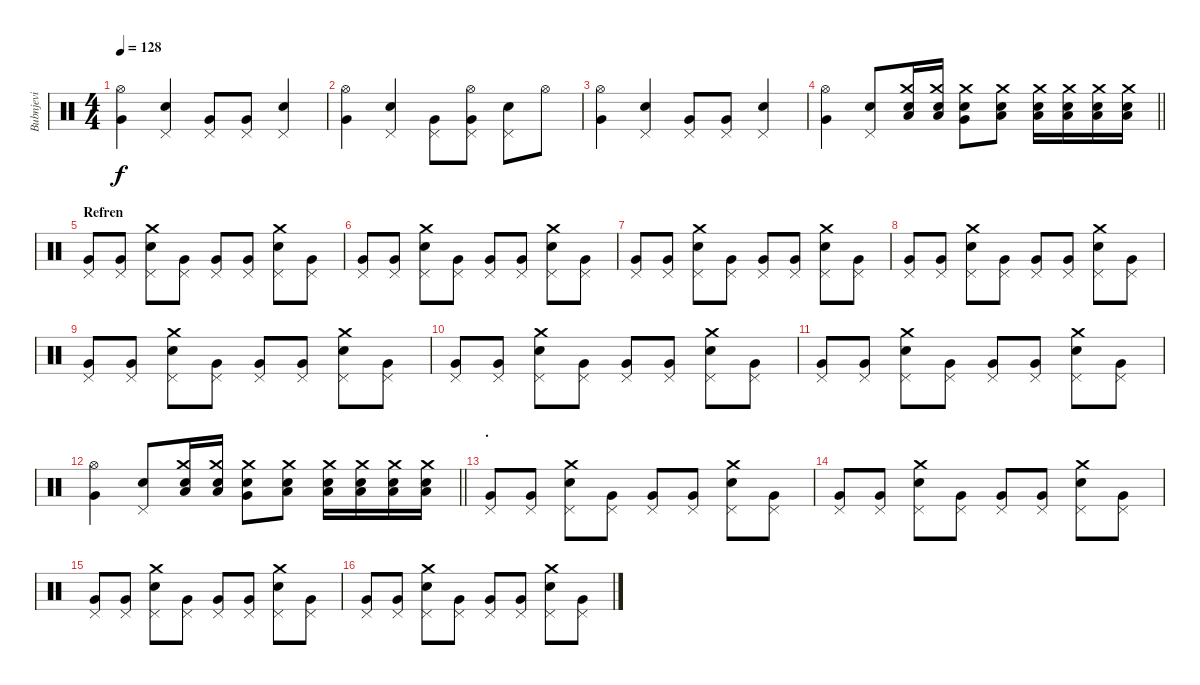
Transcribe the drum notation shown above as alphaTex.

\track ("Bubnjevi" "Bubnjevi") {instrument percussion}
\staff {score}
\articulation defaults
\ts (4 4)
\tempo 128
\clef neutral
\ks c
("Hi-Hat (open)" "Very Low Tom (hit)").4{dy f} ("Pedal Hi-Hat (hit)" "Electric Snare (hit)").4 ("Pedal Hi-Hat (hit)" "Very Low Tom (hit)").8 ("Pedal Hi-Hat (hit)" "Very Low Tom (hit)").8 ("Pedal Hi-Hat (hit)" "Electric Snare (hit)").4 |
("Hi-Hat (open)" "Very Low Tom (hit)").4 ("Pedal Hi-Hat (hit)" "Electric Snare (hit)").4 ("Pedal Hi-Hat (hit)" "Very Low Tom (hit)").8 ("Pedal Hi-Hat (hit)" "Hi-Hat (open)" "Very Low Tom (hit)").8 ("Pedal Hi-Hat (hit)" "Electric Snare (hit)").8 "Hi-Hat (open)".8 |
("Hi-Hat (open)" "Very Low Tom (hit)").4 ("Pedal Hi-Hat (hit)" "Electric Snare (hit)").4 ("Pedal Hi-Hat (hit)" "Very Low Tom (hit)").8 ("Pedal Hi-Hat (hit)" "Very Low Tom (hit)").8 ("Pedal Hi-Hat (hit)" "Electric Snare (hit)").4 |
\barLineRight lightlight
("Hi-Hat (open)" "Very Low Tom (hit)").4 ("Pedal Hi-Hat (hit)" "Electric Snare (hit)").8 ("Crash medium (hit)" "Electric Snare (hit)" "Low Tom (hit)").16 ("Crash medium (hit)" "Electric Snare (hit)" "Low Tom (hit)").16 ("Crash medium (hit)" "Electric Snare (hit)" "Very Low Tom (hit)").8 ("Crash medium (hit)" "Electric Snare (hit)" "Low Tom (hit)").8 ("Crash medium (hit)" "Electric Snare (hit)" "Low Tom (hit)").16 ("Crash medium (hit)" "Electric Snare (hit)" "Low Tom (hit)").16 ("Crash medium (hit)" "Electric Snare (hit)" "Low Tom (hit)").16 ("Crash medium (hit)" "Electric Snare (hit)" "Low Tom (hit)").16 |
\section ("" "Refren")
("Pedal Hi-Hat (hit)" "Very Low Tom (hit)").8 ("Pedal Hi-Hat (hit)" "Very Low Tom (hit)").8 ("Crash medium (hit)" "Pedal Hi-Hat (hit)" "Electric Snare (hit)").8 ("Pedal Hi-Hat (hit)" "Very Low Tom (hit)").8 ("Pedal Hi-Hat (hit)" "Very Low Tom (hit)").8 ("Pedal Hi-Hat (hit)" "Very Low Tom (hit)").8 ("Crash medium (hit)" "Pedal Hi-Hat (hit)" "Electric Snare (hit)").8 ("Pedal Hi-Hat (hit)" "Very Low Tom (hit)").8 |
("Pedal Hi-Hat (hit)" "Very Low Tom (hit)").8 ("Pedal Hi-Hat (hit)" "Very Low Tom (hit)").8 ("Crash medium (hit)" "Pedal Hi-Hat (hit)" "Electric Snare (hit)").8 ("Pedal Hi-Hat (hit)" "Very Low Tom (hit)").8 ("Pedal Hi-Hat (hit)" "Very Low Tom (hit)").8 ("Pedal Hi-Hat (hit)" "Very Low Tom (hit)").8 ("Crash medium (hit)" "Pedal Hi-Hat (hit)" "Electric Snare (hit)").8 ("Pedal Hi-Hat (hit)" "Very Low Tom (hit)").8 |
("Pedal Hi-Hat (hit)" "Very Low Tom (hit)").8 ("Pedal Hi-Hat (hit)" "Very Low Tom (hit)").8 ("Crash medium (hit)" "Pedal Hi-Hat (hit)" "Electric Snare (hit)").8 ("Pedal Hi-Hat (hit)" "Very Low Tom (hit)").8 ("Pedal Hi-Hat (hit)" "Very Low Tom (hit)").8 ("Pedal Hi-Hat (hit)" "Very Low Tom (hit)").8 ("Crash medium (hit)" "Pedal Hi-Hat (hit)" "Electric Snare (hit)").8 ("Pedal Hi-Hat (hit)" "Very Low Tom (hit)").8 |
("Pedal Hi-Hat (hit)" "Very Low Tom (hit)").8 ("Pedal Hi-Hat (hit)" "Very Low Tom (hit)").8 ("Crash medium (hit)" "Pedal Hi-Hat (hit)" "Electric Snare (hit)").8 ("Pedal Hi-Hat (hit)" "Very Low Tom (hit)").8 ("Pedal Hi-Hat (hit)" "Very Low Tom (hit)").8 ("Pedal Hi-Hat (hit)" "Very Low Tom (hit)").8 ("Crash medium (hit)" "Pedal Hi-Hat (hit)" "Electric Snare (hit)").8 ("Pedal Hi-Hat (hit)" "Very Low Tom (hit)").8 |
("Pedal Hi-Hat (hit)" "Very Low Tom (hit)").8 ("Pedal Hi-Hat (hit)" "Very Low Tom (hit)").8 ("Crash medium (hit)" "Pedal Hi-Hat (hit)" "Electric Snare (hit)").8 ("Pedal Hi-Hat (hit)" "Very Low Tom (hit)").8 ("Pedal Hi-Hat (hit)" "Very Low Tom (hit)").8 ("Pedal Hi-Hat (hit)" "Very Low Tom (hit)").8 ("Crash medium (hit)" "Pedal Hi-Hat (hit)" "Electric Snare (hit)").8 ("Pedal Hi-Hat (hit)" "Very Low Tom (hit)").8 |
("Pedal Hi-Hat (hit)" "Very Low Tom (hit)").8 ("Pedal Hi-Hat (hit)" "Very Low Tom (hit)").8 ("Crash medium (hit)" "Pedal Hi-Hat (hit)" "Electric Snare (hit)").8 ("Pedal Hi-Hat (hit)" "Very Low Tom (hit)").8 ("Pedal Hi-Hat (hit)" "Very Low Tom (hit)").8 ("Pedal Hi-Hat (hit)" "Very Low Tom (hit)").8 ("Crash medium (hit)" "Pedal Hi-Hat (hit)" "Electric Snare (hit)").8 ("Pedal Hi-Hat (hit)" "Very Low Tom (hit)").8 |
("Pedal Hi-Hat (hit)" "Very Low Tom (hit)").8 ("Pedal Hi-Hat (hit)" "Very Low Tom (hit)").8 ("Crash medium (hit)" "Pedal Hi-Hat (hit)" "Electric Snare (hit)").8 ("Pedal Hi-Hat (hit)" "Very Low Tom (hit)").8 ("Pedal Hi-Hat (hit)" "Very Low Tom (hit)").8 ("Pedal Hi-Hat (hit)" "Very Low Tom (hit)").8 ("Crash medium (hit)" "Pedal Hi-Hat (hit)" "Electric Snare (hit)").8 ("Pedal Hi-Hat (hit)" "Very Low Tom (hit)").8 |
\barLineRight lightlight
("Hi-Hat (open)" "Very Low Tom (hit)").4 ("Pedal Hi-Hat (hit)" "Electric Snare (hit)").8 ("Crash medium (hit)" "Electric Snare (hit)" "Low Tom (hit)").16 ("Crash medium (hit)" "Electric Snare (hit)" "Low Tom (hit)").16 ("Crash medium (hit)" "Electric Snare (hit)" "Very Low Tom (hit)").8 ("Crash medium (hit)" "Electric Snare (hit)" "Low Tom (hit)").8 ("Crash medium (hit)" "Electric Snare (hit)" "Low Tom (hit)").16 ("Crash medium (hit)" "Electric Snare (hit)" "Low Tom (hit)").16 ("Crash medium (hit)" "Electric Snare (hit)" "Low Tom (hit)").16 ("Crash medium (hit)" "Electric Snare (hit)" "Low Tom (hit)").16 |
\section ("" ".")
("Pedal Hi-Hat (hit)" "Very Low Tom (hit)").8 ("Pedal Hi-Hat (hit)" "Very Low Tom (hit)").8 ("Crash medium (hit)" "Pedal Hi-Hat (hit)" "Electric Snare (hit)").8 ("Pedal Hi-Hat (hit)" "Very Low Tom (hit)").8 ("Pedal Hi-Hat (hit)" "Very Low Tom (hit)").8 ("Pedal Hi-Hat (hit)" "Very Low Tom (hit)").8 ("Crash medium (hit)" "Pedal Hi-Hat (hit)" "Electric Snare (hit)").8 ("Pedal Hi-Hat (hit)" "Very Low Tom (hit)").8 |
("Pedal Hi-Hat (hit)" "Very Low Tom (hit)").8 ("Pedal Hi-Hat (hit)" "Very Low Tom (hit)").8 ("Crash medium (hit)" "Pedal Hi-Hat (hit)" "Electric Snare (hit)").8 ("Pedal Hi-Hat (hit)" "Very Low Tom (hit)").8 ("Pedal Hi-Hat (hit)" "Very Low Tom (hit)").8 ("Pedal Hi-Hat (hit)" "Very Low Tom (hit)").8 ("Crash medium (hit)" "Pedal Hi-Hat (hit)" "Electric Snare (hit)").8 ("Pedal Hi-Hat (hit)" "Very Low Tom (hit)").8 |
("Pedal Hi-Hat (hit)" "Very Low Tom (hit)").8 ("Pedal Hi-Hat (hit)" "Very Low Tom (hit)").8 ("Crash medium (hit)" "Pedal Hi-Hat (hit)" "Electric Snare (hit)").8 ("Pedal Hi-Hat (hit)" "Very Low Tom (hit)").8 ("Pedal Hi-Hat (hit)" "Very Low Tom (hit)").8 ("Pedal Hi-Hat (hit)" "Very Low Tom (hit)").8 ("Crash medium (hit)" "Pedal Hi-Hat (hit)" "Electric Snare (hit)").8 ("Pedal Hi-Hat (hit)" "Very Low Tom (hit)").8 |
("Pedal Hi-Hat (hit)" "Very Low Tom (hit)").8 ("Pedal Hi-Hat (hit)" "Very Low Tom (hit)").8 ("Crash medium (hit)" "Pedal Hi-Hat (hit)" "Electric Snare (hit)").8 ("Pedal Hi-Hat (hit)" "Very Low Tom (hit)").8 ("Pedal Hi-Hat (hit)" "Very Low Tom (hit)").8 ("Pedal Hi-Hat (hit)" "Very Low Tom (hit)").8 ("Crash medium (hit)" "Pedal Hi-Hat (hit)" "Electric Snare (hit)").8 ("Pedal Hi-Hat (hit)" "Very Low Tom (hit)").8
